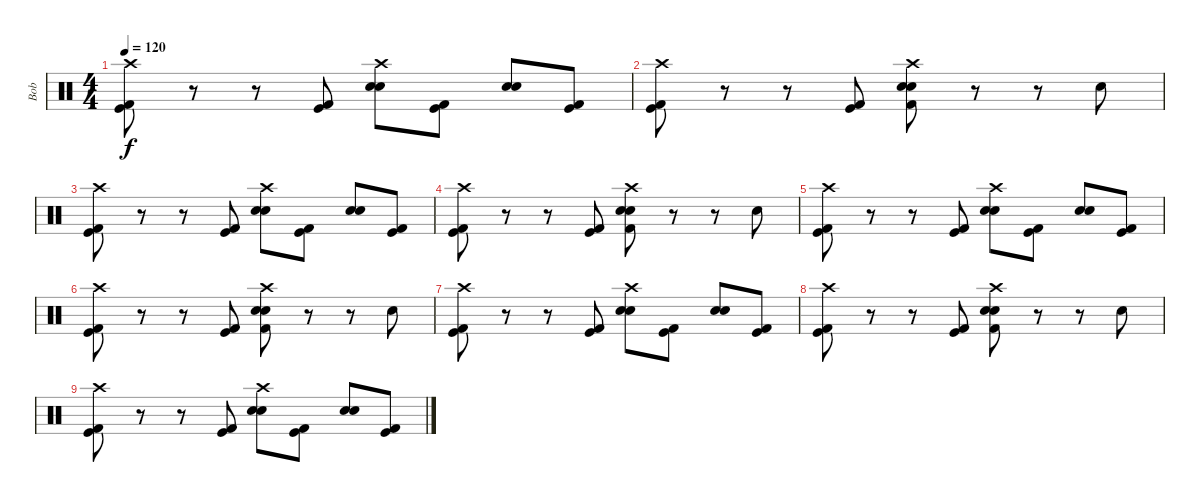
\track ("Bob" "Bob") {instrument percussion}
\staff {score}
\articulation defaults
\ts (4 4)
\tempo 120
\clef neutral
\ks c
("Crash high (hit)" "Kick (hit)" "Kick (hit) 2").8{dy f} r.8 r.8 ("Kick (hit)" "Kick (hit) 2").8 ("Crash high (hit)" "Electric Snare (hit)" "Snare (hit) 2").8 ("Kick (hit)" "Kick (hit) 2").8 ("Electric Snare (hit)" "Snare (hit) 2").8 ("Kick (hit)" "Kick (hit) 2").8 |
("Crash high (hit)" "Kick (hit)" "Kick (hit) 2").8{volume 0} r.8 r.8 ("Kick (hit)" "Kick (hit) 2").8 ("Crash high (hit)" "Electric Snare (hit)" "Snare (hit) 2" "Kick (hit) 2").8 r.8 r.8 "Snare (hit) 2".8 |
("Crash high (hit)" "Kick (hit)" "Kick (hit) 2").8 r.8 r.8 ("Kick (hit)" "Kick (hit) 2").8 ("Crash high (hit)" "Electric Snare (hit)" "Snare (hit) 2").8 ("Kick (hit)" "Kick (hit) 2").8 ("Electric Snare (hit)" "Snare (hit) 2").8 ("Kick (hit)" "Kick (hit) 2").8 |
("Crash high (hit)" "Kick (hit)" "Kick (hit) 2").8 r.8 r.8 ("Kick (hit)" "Kick (hit) 2").8 ("Crash high (hit)" "Electric Snare (hit)" "Snare (hit) 2" "Kick (hit) 2").8 r.8 r.8 "Snare (hit) 2".8 |
("Crash high (hit)" "Kick (hit)" "Kick (hit) 2").8 r.8 r.8 ("Kick (hit)" "Kick (hit) 2").8 ("Crash high (hit)" "Electric Snare (hit)" "Snare (hit) 2").8 ("Kick (hit)" "Kick (hit) 2").8 ("Electric Snare (hit)" "Snare (hit) 2").8 ("Kick (hit)" "Kick (hit) 2").8 |
("Crash high (hit)" "Kick (hit)" "Kick (hit) 2").8 r.8 r.8 ("Kick (hit)" "Kick (hit) 2").8 ("Crash high (hit)" "Electric Snare (hit)" "Snare (hit) 2" "Kick (hit) 2").8 r.8 r.8 "Snare (hit) 2".8 |
("Crash high (hit)" "Kick (hit)" "Kick (hit) 2").8 r.8 r.8 ("Kick (hit)" "Kick (hit) 2").8 ("Crash high (hit)" "Electric Snare (hit)" "Snare (hit) 2").8 ("Kick (hit)" "Kick (hit) 2").8 ("Electric Snare (hit)" "Snare (hit) 2").8 ("Kick (hit)" "Kick (hit) 2").8 |
("Crash high (hit)" "Kick (hit)" "Kick (hit) 2").8 r.8 r.8 ("Kick (hit)" "Kick (hit) 2").8 ("Crash high (hit)" "Electric Snare (hit)" "Snare (hit) 2" "Kick (hit) 2").8 r.8 r.8 "Snare (hit) 2".8 |
("Crash high (hit)" "Kick (hit)" "Kick (hit) 2").8 r.8 r.8 ("Kick (hit)" "Kick (hit) 2").8 ("Crash high (hit)" "Electric Snare (hit)" "Snare (hit) 2").8 ("Kick (hit)" "Kick (hit) 2").8 ("Electric Snare (hit)" "Snare (hit) 2").8 ("Kick (hit)" "Kick (hit) 2").8
